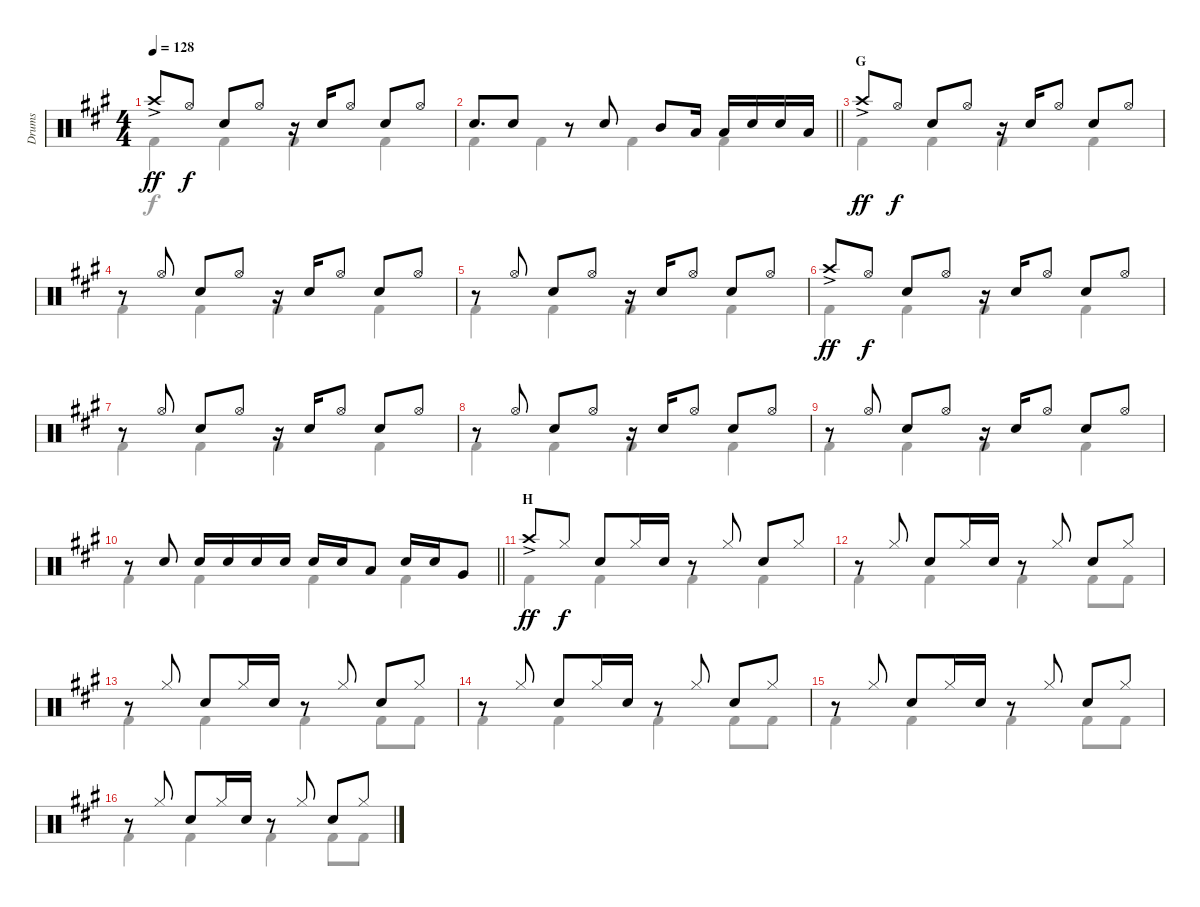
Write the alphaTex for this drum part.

\track ("Drums" "Drums") {instrument percussion}
\staff {score}
\articulation defaults
\voice
\ts (4 4)
\tempo 128
\clef neutral
\ks a "Crash high (hit)"{ac}.8{dy ff} "Hi-Hat (open)".8{dy f} "Snare (hit) 2".8 "Hi-Hat (open)".8
r.16 "Snare (hit) 2".16 "Hi-Hat (open)".8 "Snare (hit) 2".8 "Hi-Hat (open)".8 |
\barLineRight lightlight "Snare (hit) 2".8{d} "Snare (hit) 2".8
r.8 "Snare (hit) 2".8 "Mid Tom (hit)".8 "Low Tom (hit)".16 "Low Tom (hit)".16 "Snare (hit) 2".16 "Snare (hit) 2".16 "Low Tom (hit)".16 |
\section ("" "G")
"Crash high (hit)"{ac}.8{dy ff} "Hi-Hat (open)".8{dy f} "Snare (hit) 2".8 "Hi-Hat (open)".8 r.16 "Snare (hit) 2".16 "Hi-Hat (open)".8 "Snare (hit) 2".8 "Hi-Hat (open)".8 |
r.8 "Hi-Hat (open)".8 "Snare (hit) 2".8 "Hi-Hat (open)".8 r.16 "Snare (hit) 2".16 "Hi-Hat (open)".8 "Snare (hit) 2".8 "Hi-Hat (open)".8 |
r.8 "Hi-Hat (open)".8 "Snare (hit) 2".8 "Hi-Hat (open)".8 r.16 "Snare (hit) 2".16 "Hi-Hat (open)".8 "Snare (hit) 2".8 "Hi-Hat (open)".8 |
"Crash high (hit)"{ac}.8{dy ff} "Hi-Hat (open)".8{dy f} "Snare (hit) 2".8 "Hi-Hat (open)".8 r.16 "Snare (hit) 2".16 "Hi-Hat (open)".8 "Snare (hit) 2".8 "Hi-Hat (open)".8 |
r.8 "Hi-Hat (open)".8 "Snare (hit) 2".8 "Hi-Hat (open)".8 r.16 "Snare (hit) 2".16 "Hi-Hat (open)".8 "Snare (hit) 2".8 "Hi-Hat (open)".8 |
r.8 "Hi-Hat (open)".8 "Snare (hit) 2".8 "Hi-Hat (open)".8 r.16 "Snare (hit) 2".16 "Hi-Hat (open)".8 "Snare (hit) 2".8 "Hi-Hat (open)".8 |
r.8 "Hi-Hat (open)".8 "Snare (hit) 2".8 "Hi-Hat (open)".8 r.16 "Snare (hit) 2".16 "Hi-Hat (open)".8 "Snare (hit) 2".8 "Hi-Hat (open)".8 |
\barLineRight lightlight
r.8 "Snare (hit) 2".8 "Snare (hit) 2".16 "Snare (hit) 2".16 "Snare (hit) 2".16 "Snare (hit) 2".16 "Snare (hit) 2".16 "Snare (hit) 2".16 "Low Tom (hit)".8 "Snare (hit) 2".16 "Snare (hit) 2".16 "Very Low Tom (hit)".8 |
\section ("" "H")
"Crash high (hit)"{ac}.8{dy ff} "Hi-Hat (closed)".8{dy f} "Snare (hit) 2".8 "Hi-Hat (closed)".16 "Snare (hit) 2".16 r.8 "Hi-Hat (closed)".8 "Snare (hit) 2".8 "Hi-Hat (closed)".8 |
r.8 "Hi-Hat (closed)".8 "Snare (hit) 2".8 "Hi-Hat (closed)".16 "Snare (hit) 2".16 r.8 "Hi-Hat (closed)".8 "Snare (hit) 2".8 "Hi-Hat (closed)".8 |
r.8 "Hi-Hat (closed)".8 "Snare (hit) 2".8 "Hi-Hat (closed)".16 "Snare (hit) 2".16 r.8 "Hi-Hat (closed)".8 "Snare (hit) 2".8 "Hi-Hat (closed)".8 |
r.8 "Hi-Hat (closed)".8 "Snare (hit) 2".8 "Hi-Hat (closed)".16 "Snare (hit) 2".16 r.8 "Hi-Hat (closed)".8 "Snare (hit) 2".8 "Hi-Hat (closed)".8 |
r.8 "Hi-Hat (closed)".8 "Snare (hit) 2".8 "Hi-Hat (closed)".16 "Snare (hit) 2".16 r.8 "Hi-Hat (closed)".8 "Snare (hit) 2".8 "Hi-Hat (closed)".8 |
r.8 "Hi-Hat (closed)".8 "Snare (hit) 2".8 "Hi-Hat (closed)".16 "Snare (hit) 2".16 r.8 "Hi-Hat (closed)".8 "Snare (hit) 2".8 "Hi-Hat (closed)".8
\voice
\clef neutral
\ottava regular
\simile none
\ks a "Kick (hit) 2".4{dy f} "Kick (hit) 2".4 "Kick (hit) 2".4 "Kick (hit) 2".4
|
\barLineRight lightlight "Kick (hit) 2".4 "Kick (hit) 2".4 "Kick (hit) 2".4 "Kick (hit) 2".4
|
"Kick (hit) 2".4 "Kick (hit) 2".4 "Kick (hit) 2".4 "Kick (hit) 2".4 |
"Kick (hit) 2".4 "Kick (hit) 2".4 "Kick (hit) 2".4 "Kick (hit) 2".4 |
"Kick (hit) 2".4 "Kick (hit) 2".4 "Kick (hit) 2".4 "Kick (hit) 2".4 |
"Kick (hit) 2".4 "Kick (hit) 2".4 "Kick (hit) 2".4 "Kick (hit) 2".4 |
"Kick (hit) 2".4 "Kick (hit) 2".4 "Kick (hit) 2".4 "Kick (hit) 2".4 |
"Kick (hit) 2".4 "Kick (hit) 2".4 "Kick (hit) 2".4 "Kick (hit) 2".4 |
"Kick (hit) 2".4 "Kick (hit) 2".4 "Kick (hit) 2".4 "Kick (hit) 2".4 |
\barLineRight lightlight "Kick (hit) 2".4 "Kick (hit) 2".4 "Kick (hit) 2".4 "Kick (hit) 2".4
|
"Kick (hit) 2".4 "Kick (hit) 2".4 "Kick (hit) 2".4 "Kick (hit) 2".4 |
"Kick (hit) 2".4 "Kick (hit) 2".4 "Kick (hit) 2".4 "Kick (hit) 2".8 "Kick (hit) 2".8 |
"Kick (hit) 2".4 "Kick (hit) 2".4 "Kick (hit) 2".4 "Kick (hit) 2".8 "Kick (hit) 2".8 |
"Kick (hit) 2".4 "Kick (hit) 2".4 "Kick (hit) 2".4 "Kick (hit) 2".8 "Kick (hit) 2".8 |
"Kick (hit) 2".4 "Kick (hit) 2".4 "Kick (hit) 2".4 "Kick (hit) 2".8 "Kick (hit) 2".8 |
"Kick (hit) 2".4 "Kick (hit) 2".4 "Kick (hit) 2".4 "Kick (hit) 2".8 "Kick (hit) 2".8
